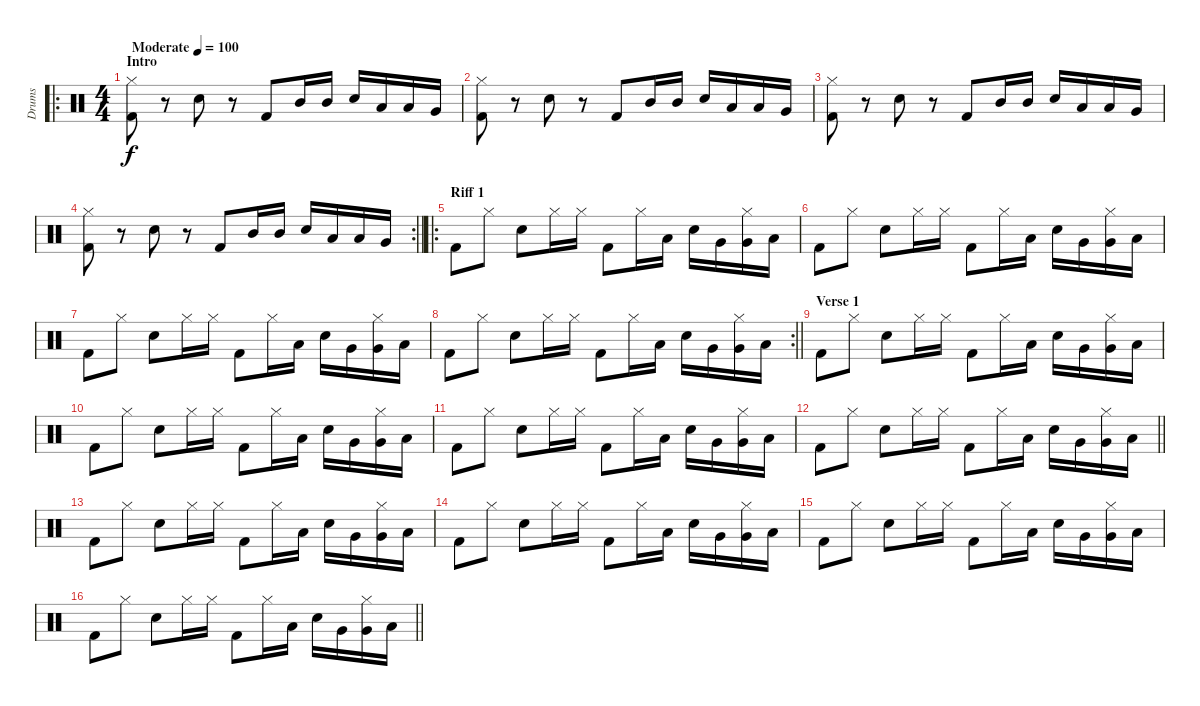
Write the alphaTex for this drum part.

\track ("Drums" "Drums") {instrument percussion}
\staff {score}
\articulation defaults
\ro
\ts (4 4)
\section ("" "Intro")
\tempo (100 "Moderate")
\clef neutral
\ks c
("Hi-Hat (closed)" "Kick (hit) 2").8{dy f} r.8 "Snare (hit) 2".8 r.8 "Kick (hit) 2".8 "Mid Tom (hit)".16 "Mid Tom (hit)".16 "Snare (hit) 2".16 "Low Tom (hit)".16 "Low Tom (hit)".16 "Very Low Tom (hit)".16 |
("Hi-Hat (closed)" "Kick (hit) 2").8 r.8 "Snare (hit) 2".8 r.8 "Kick (hit) 2".8 "Mid Tom (hit)".16 "Mid Tom (hit)".16 "Snare (hit) 2".16 "Low Tom (hit)".16 "Low Tom (hit)".16 "Very Low Tom (hit)".16 |
("Hi-Hat (closed)" "Kick (hit) 2").8 r.8 "Snare (hit) 2".8 r.8 "Kick (hit) 2".8 "Mid Tom (hit)".16 "Mid Tom (hit)".16 "Snare (hit) 2".16 "Low Tom (hit)".16 "Low Tom (hit)".16 "Very Low Tom (hit)".16 |
\rc 2
\barLineRight lightlight
("Hi-Hat (closed)" "Kick (hit) 2").8 r.8 "Snare (hit) 2".8 r.8 "Kick (hit) 2".8 "Mid Tom (hit)".16 "Mid Tom (hit)".16 "Snare (hit) 2".16 "Low Tom (hit)".16 "Low Tom (hit)".16 "Very Low Tom (hit)".16 |
\ro
\section ("" "Riff 1")
"Kick (hit) 2".8 "Hi-Hat (closed)".8 "Snare (hit) 2".8 "Hi-Hat (closed)".16 "Hi-Hat (closed)".16 "Kick (hit) 2".8 "Hi-Hat (closed)".16 "Low Tom (hit)".16 "Snare (hit) 2".16 "Very Low Tom (hit)".16 ("Hi-Hat (closed)" "Very Low Tom (hit)").16 "Low Floor Tom (hit)".16 |
"Kick (hit) 2".8 "Hi-Hat (closed)".8 "Snare (hit) 2".8 "Hi-Hat (closed)".16 "Hi-Hat (closed)".16 "Kick (hit) 2".8 "Hi-Hat (closed)".16 "Low Tom (hit)".16 "Snare (hit) 2".16 "Very Low Tom (hit)".16 ("Hi-Hat (closed)" "Very Low Tom (hit)").16 "Low Floor Tom (hit)".16 |
"Kick (hit) 2".8 "Hi-Hat (closed)".8 "Snare (hit) 2".8 "Hi-Hat (closed)".16 "Hi-Hat (closed)".16 "Kick (hit) 2".8 "Hi-Hat (closed)".16 "Low Tom (hit)".16 "Snare (hit) 2".16 "Very Low Tom (hit)".16 ("Hi-Hat (closed)" "Very Low Tom (hit)").16 "Low Floor Tom (hit)".16 |
\rc 2
\barLineRight lightlight "Kick (hit) 2".8 "Hi-Hat (closed)".8 "Snare (hit) 2".8 "Hi-Hat (closed)".16 "Hi-Hat (closed)".16 "Kick (hit) 2".8 "Hi-Hat (closed)".16 "Low Tom (hit)".16 "Snare (hit) 2".16 "Very Low Tom (hit)".16
("Hi-Hat (closed)" "Very Low Tom (hit)").16 "Low Floor Tom (hit)".16 |
\section ("" "Verse 1")
"Kick (hit) 2".8 "Hi-Hat (closed)".8 "Snare (hit) 2".8 "Hi-Hat (closed)".16 "Hi-Hat (closed)".16 "Kick (hit) 2".8 "Hi-Hat (closed)".16 "Low Tom (hit)".16 "Snare (hit) 2".16 "Very Low Tom (hit)".16 ("Hi-Hat (closed)" "Very Low Tom (hit)").16 "Low Floor Tom (hit)".16 |
"Kick (hit) 2".8 "Hi-Hat (closed)".8 "Snare (hit) 2".8 "Hi-Hat (closed)".16 "Hi-Hat (closed)".16 "Kick (hit) 2".8 "Hi-Hat (closed)".16 "Low Tom (hit)".16 "Snare (hit) 2".16 "Very Low Tom (hit)".16 ("Hi-Hat (closed)" "Very Low Tom (hit)").16 "Low Floor Tom (hit)".16 |
"Kick (hit) 2".8 "Hi-Hat (closed)".8 "Snare (hit) 2".8 "Hi-Hat (closed)".16 "Hi-Hat (closed)".16 "Kick (hit) 2".8 "Hi-Hat (closed)".16 "Low Tom (hit)".16 "Snare (hit) 2".16 "Very Low Tom (hit)".16 ("Hi-Hat (closed)" "Very Low Tom (hit)").16 "Low Floor Tom (hit)".16 |
\barLineRight lightlight "Kick (hit) 2".8 "Hi-Hat (closed)".8 "Snare (hit) 2".8 "Hi-Hat (closed)".16 "Hi-Hat (closed)".16 "Kick (hit) 2".8 "Hi-Hat (closed)".16 "Low Tom (hit)".16 "Snare (hit) 2".16 "Very Low Tom (hit)".16
("Hi-Hat (closed)" "Very Low Tom (hit)").16 "Low Floor Tom (hit)".16 |
"Kick (hit) 2".8 "Hi-Hat (closed)".8 "Snare (hit) 2".8 "Hi-Hat (closed)".16 "Hi-Hat (closed)".16 "Kick (hit) 2".8 "Hi-Hat (closed)".16 "Low Tom (hit)".16 "Snare (hit) 2".16 "Very Low Tom (hit)".16 ("Hi-Hat (closed)" "Very Low Tom (hit)").16 "Low Floor Tom (hit)".16 |
"Kick (hit) 2".8 "Hi-Hat (closed)".8 "Snare (hit) 2".8 "Hi-Hat (closed)".16 "Hi-Hat (closed)".16 "Kick (hit) 2".8 "Hi-Hat (closed)".16 "Low Tom (hit)".16 "Snare (hit) 2".16 "Very Low Tom (hit)".16 ("Hi-Hat (closed)" "Very Low Tom (hit)").16 "Low Floor Tom (hit)".16 |
"Kick (hit) 2".8 "Hi-Hat (closed)".8 "Snare (hit) 2".8 "Hi-Hat (closed)".16 "Hi-Hat (closed)".16 "Kick (hit) 2".8 "Hi-Hat (closed)".16 "Low Tom (hit)".16 "Snare (hit) 2".16 "Very Low Tom (hit)".16 ("Hi-Hat (closed)" "Very Low Tom (hit)").16 "Low Floor Tom (hit)".16 |
\barLineRight lightlight "Kick (hit) 2".8 "Hi-Hat (closed)".8 "Snare (hit) 2".8 "Hi-Hat (closed)".16 "Hi-Hat (closed)".16 "Kick (hit) 2".8 "Hi-Hat (closed)".16 "Low Tom (hit)".16 "Snare (hit) 2".16 "Very Low Tom (hit)".16
("Hi-Hat (closed)" "Very Low Tom (hit)").16 "Low Floor Tom (hit)".16
